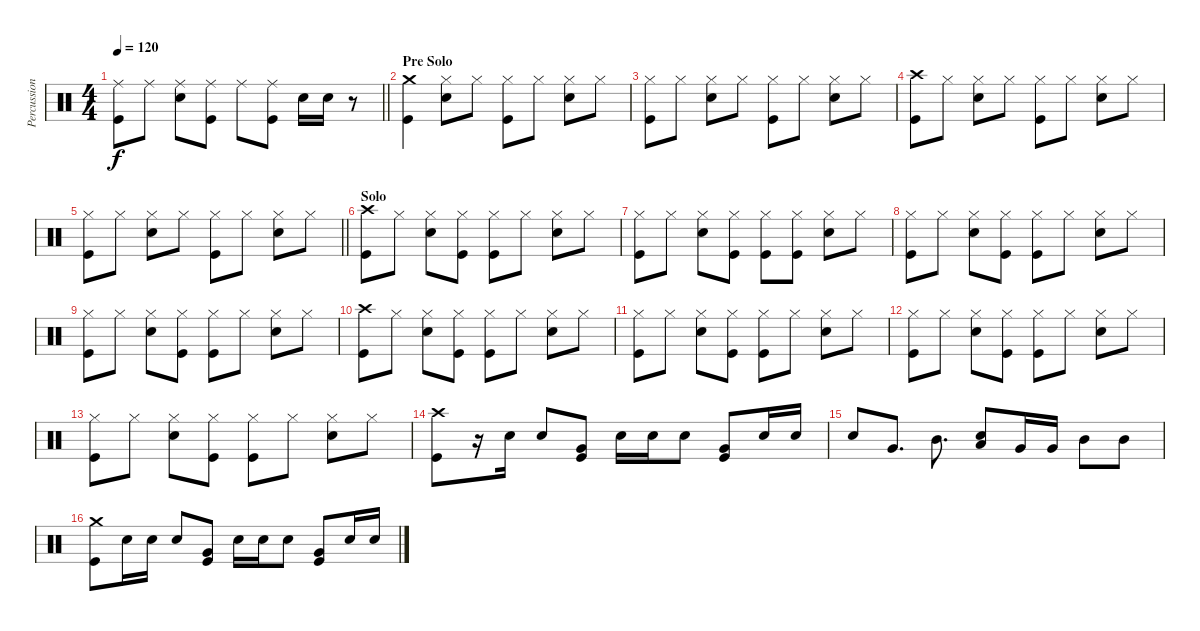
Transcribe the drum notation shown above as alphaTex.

\track ("Percussion" "Percussion") {instrument percussion}
\staff {score}
\articulation defaults
\ts (4 4)
\tempo 120
\clef neutral
\barLineRight lightlight
\ks c
("Kick (hit)" "Ride (middle)").8{dy f} "Ride (middle)".8 ("Ride (middle)" "Snare (hit) 2").8 ("Kick (hit)" "Ride (middle)").8 "Ride (middle)".8 ("Kick (hit)" "Ride (middle)").8 "Snare (hit) 2".16 "Snare (hit) 2".16 r.8 |
\section ("" "Pre Solo")
("Kick (hit)" "Crash medium (hit)").4 ("Hi-Hat (closed)" "Snare (hit) 2").8 "Hi-Hat (closed)".8 ("Kick (hit)" "Hi-Hat (closed)").8 "Hi-Hat (closed)".8 ("Hi-Hat (closed)" "Snare (hit) 2").8 "Hi-Hat (closed)".8 |
("Kick (hit)" "Hi-Hat (closed)").8 "Hi-Hat (closed)".8 ("Hi-Hat (closed)" "Snare (hit) 2").8 "Hi-Hat (closed)".8 ("Kick (hit)" "Hi-Hat (closed)").8 "Hi-Hat (closed)".8 ("Hi-Hat (closed)" "Snare (hit) 2").8 "Hi-Hat (closed)".8 |
("Kick (hit)" "Crash high (hit)").8 "Hi-Hat (closed)".8 ("Hi-Hat (closed)" "Snare (hit) 2").8 "Hi-Hat (closed)".8 ("Kick (hit)" "Hi-Hat (closed)").8 "Hi-Hat (closed)".8 ("Hi-Hat (closed)" "Snare (hit) 2").8 "Hi-Hat (closed)".8 |
\barLineRight lightlight
("Kick (hit)" "Hi-Hat (closed)").8 "Hi-Hat (closed)".8 ("Hi-Hat (closed)" "Snare (hit) 2").8 "Hi-Hat (closed)".8 ("Kick (hit)" "Hi-Hat (closed)").8 "Hi-Hat (closed)".8 ("Hi-Hat (closed)" "Snare (hit) 2").8 "Hi-Hat (closed)".8 |
\section ("" "Solo")
("Kick (hit)" "Crash high (hit)").8 "Hi-Hat (closed)".8 ("Hi-Hat (closed)" "Snare (hit) 2").8 ("Kick (hit)" "Hi-Hat (closed)").8 ("Kick (hit)" "Hi-Hat (closed)").8 "Hi-Hat (closed)".8 ("Hi-Hat (closed)" "Snare (hit) 2").8 "Hi-Hat (closed)".8 |
("Kick (hit)" "Hi-Hat (closed)").8 "Hi-Hat (closed)".8 ("Hi-Hat (closed)" "Snare (hit) 2").8 ("Kick (hit)" "Hi-Hat (closed)").8 ("Kick (hit)" "Hi-Hat (closed)").8 ("Kick (hit)" "Hi-Hat (closed)").8 ("Hi-Hat (closed)" "Snare (hit) 2").8 "Hi-Hat (closed)".8 |
("Kick (hit)" "Hi-Hat (closed)").8 "Hi-Hat (closed)".8 ("Hi-Hat (closed)" "Snare (hit) 2").8 ("Kick (hit)" "Hi-Hat (closed)").8 ("Kick (hit)" "Hi-Hat (closed)").8 "Hi-Hat (closed)".8 ("Hi-Hat (closed)" "Snare (hit) 2").8 "Hi-Hat (closed)".8 |
("Kick (hit)" "Hi-Hat (closed)").8 "Hi-Hat (closed)".8 ("Hi-Hat (closed)" "Snare (hit) 2").8 ("Kick (hit)" "Hi-Hat (closed)").8 ("Kick (hit)" "Hi-Hat (closed)").8 "Hi-Hat (closed)".8 ("Hi-Hat (closed)" "Snare (hit) 2").8 "Hi-Hat (closed)".8 |
("Kick (hit)" "Crash high (hit)").8 "Hi-Hat (closed)".8 ("Hi-Hat (closed)" "Snare (hit) 2").8 ("Kick (hit)" "Hi-Hat (closed)").8 ("Kick (hit)" "Hi-Hat (closed)").8 "Hi-Hat (closed)".8 ("Hi-Hat (closed)" "Snare (hit) 2").8 "Hi-Hat (closed)".8 |
("Kick (hit)" "Hi-Hat (closed)").8 "Hi-Hat (closed)".8 ("Hi-Hat (closed)" "Snare (hit) 2").8 ("Kick (hit)" "Hi-Hat (closed)").8 ("Kick (hit)" "Hi-Hat (closed)").8 "Hi-Hat (closed)".8 ("Hi-Hat (closed)" "Snare (hit) 2").8 "Hi-Hat (closed)".8 |
("Kick (hit)" "Hi-Hat (closed)").8 "Hi-Hat (closed)".8 ("Hi-Hat (closed)" "Snare (hit) 2").8 ("Kick (hit)" "Hi-Hat (closed)").8 ("Kick (hit)" "Hi-Hat (closed)").8 "Hi-Hat (closed)".8 ("Hi-Hat (closed)" "Snare (hit) 2").8 "Hi-Hat (closed)".8 |
("Kick (hit)" "Hi-Hat (closed)").8 "Hi-Hat (closed)".8 ("Hi-Hat (closed)" "Snare (hit) 2").8 ("Kick (hit)" "Hi-Hat (closed)").8 ("Kick (hit)" "Hi-Hat (closed)").8 "Hi-Hat (closed)".8 ("Hi-Hat (closed)" "Snare (hit) 2").8 "Hi-Hat (closed)".8 |
("Kick (hit)" "Crash high (hit)").8 r.16 "Snare (hit) 2".16 "Snare (hit) 2".8 ("Kick (hit)" "Very Low Tom (hit)").8 "Snare (hit) 2".16 "Snare (hit) 2".16 "Snare (hit) 2".8 ("Kick (hit)" "Very Low Tom (hit)").8 "Snare (hit) 2".16 "Snare (hit) 2".16 |
"Snare (hit) 2".8 "Very Low Tom (hit)".8{d} "Mid Tom (hit)".8{d} ("Low Tom (hit)" "Snare (hit) 2").8 "Very Low Tom (hit)".16 "Very Low Tom (hit)".16 "Mid Tom (hit)".8 "Mid Tom (hit)".8 |
("Kick (hit)" "Crash medium (hit)").8 "Snare (hit) 2".16 "Snare (hit) 2".16 "Snare (hit) 2".8 ("Kick (hit)" "Very Low Tom (hit)").8 "Snare (hit) 2".16 "Snare (hit) 2".16 "Snare (hit) 2".8 ("Kick (hit)" "Very Low Tom (hit)").8 "Snare (hit) 2".16 "Snare (hit) 2".16
